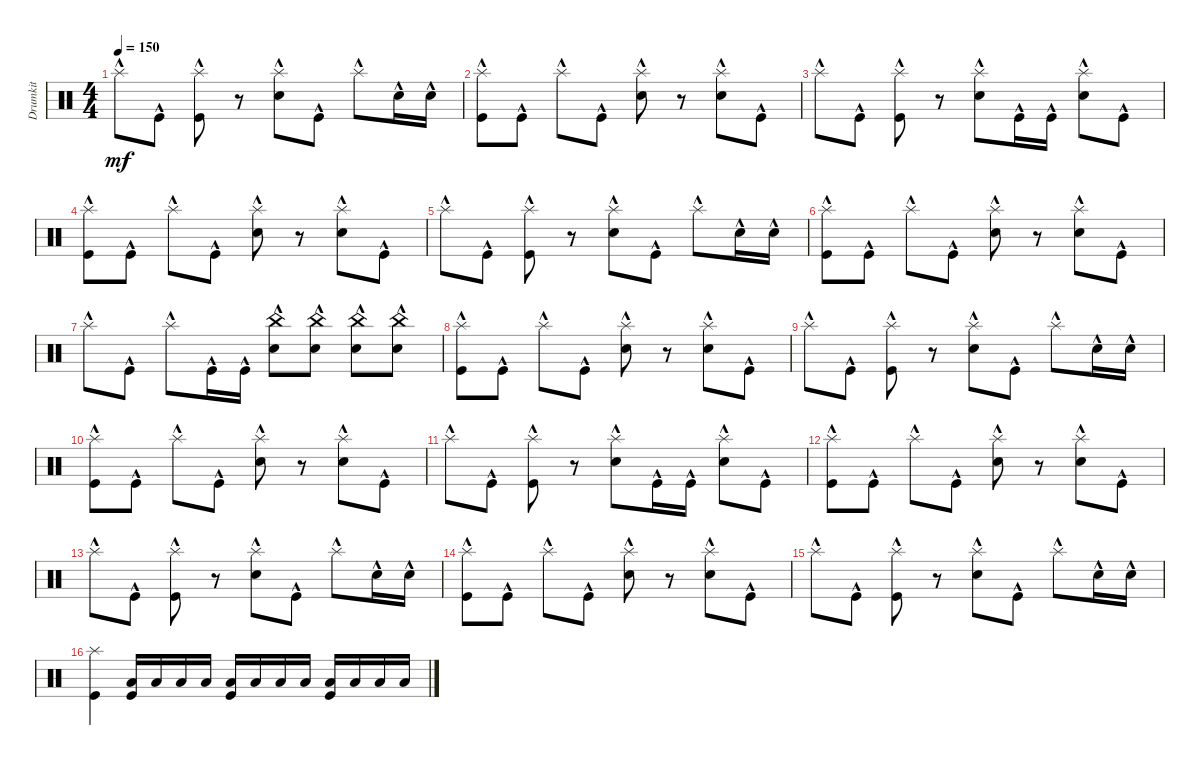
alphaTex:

\track ("Drumkit" "Drumkit") {instrument percussion}
\staff {score}
\articulation defaults
\ts (4 4)
\tempo 150
\clef neutral
\ks c "Splash (hit)"{hac}.8{dy mf} "Kick (hit)"{hac}.8
("Kick (hit)"{hac} "Splash (hit)"{hac}).8 r.8 ("Snare (hit) 2"{hac} "Splash (hit)"{hac}).8 "Kick (hit)"{hac}.8 "Splash (hit)"{hac}.8 "Snare (hit) 2"{hac}.16 "Snare (hit) 2"{hac}.16 |
("Kick (hit)"{hac} "Splash (hit)"{hac}).8 "Kick (hit)"{hac}.8 "Splash (hit)"{hac}.8 "Kick (hit)"{hac}.8 ("Snare (hit) 2"{hac} "Splash (hit)"{hac}).8 r.8 ("Snare (hit) 2"{hac} "Splash (hit)"{hac}).8 "Kick (hit)"{hac}.8 |
"Splash (hit)"{hac}.8 "Kick (hit)"{hac}.8 ("Kick (hit)"{hac} "Splash (hit)"{hac}).8 r.8 ("Snare (hit) 2"{hac} "Splash (hit)"{hac}).8 "Kick (hit)"{hac}.16 "Kick (hit)"{hac}.16 ("Snare (hit) 2"{hac} "Splash (hit)"{hac}).8 "Kick (hit)"{hac}.8 |
("Kick (hit)"{hac} "Splash (hit)"{hac}).8 "Kick (hit)"{hac}.8 "Splash (hit)"{hac}.8 "Kick (hit)"{hac}.8 ("Snare (hit) 2"{hac} "Splash (hit)"{hac}).8 r.8 ("Snare (hit) 2"{hac} "Splash (hit)"{hac}).8 "Kick (hit)"{hac}.8 |
"Splash (hit)"{hac}.8 "Kick (hit)"{hac}.8 ("Kick (hit)"{hac} "Splash (hit)"{hac}).8 r.8 ("Snare (hit) 2"{hac} "Splash (hit)"{hac}).8 "Kick (hit)"{hac}.8 "Splash (hit)"{hac}.8 "Snare (hit) 2"{hac}.16 "Snare (hit) 2"{hac}.16 |
("Kick (hit)"{hac} "Splash (hit)"{hac}).8 "Kick (hit)"{hac}.8 "Splash (hit)"{hac}.8 "Kick (hit)"{hac}.8 ("Snare (hit) 2"{hac} "Splash (hit)"{hac}).8 r.8 ("Snare (hit) 2"{hac} "Splash (hit)"{hac}).8 "Kick (hit)"{hac}.8 |
"Splash (hit)"{hac}.8 "Kick (hit)"{hac}.8 "Splash (hit)"{hac}.8 "Kick (hit)"{hac}.16 "Kick (hit)"{hac}.16 ("Snare (hit) 2"{hac} "China (hit)"{hac}).8 ("Snare (hit) 2"{hac} "China (hit)"{hac}).8 ("Snare (hit) 2"{hac} "China (hit)"{hac}).8 ("Snare (hit) 2"{hac} "China (hit)"{hac}).8 |
("Kick (hit)"{hac} "Splash (hit)"{hac}).8 "Kick (hit)"{hac}.8 "Splash (hit)"{hac}.8 "Kick (hit)"{hac}.8 ("Snare (hit) 2"{hac} "Splash (hit)"{hac}).8 r.8 ("Snare (hit) 2"{hac} "Splash (hit)"{hac}).8 "Kick (hit)"{hac}.8 |
"Splash (hit)"{hac}.8 "Kick (hit)"{hac}.8 ("Kick (hit)"{hac} "Splash (hit)"{hac}).8 r.8 ("Snare (hit) 2"{hac} "Splash (hit)"{hac}).8 "Kick (hit)"{hac}.8 "Splash (hit)"{hac}.8 "Snare (hit) 2"{hac}.16 "Snare (hit) 2"{hac}.16 |
("Kick (hit)"{hac} "Splash (hit)"{hac}).8 "Kick (hit)"{hac}.8 "Splash (hit)"{hac}.8 "Kick (hit)"{hac}.8 ("Snare (hit) 2"{hac} "Splash (hit)"{hac}).8 r.8 ("Snare (hit) 2"{hac} "Splash (hit)"{hac}).8 "Kick (hit)"{hac}.8 |
"Splash (hit)"{hac}.8 "Kick (hit)"{hac}.8 ("Kick (hit)"{hac} "Splash (hit)"{hac}).8 r.8 ("Snare (hit) 2"{hac} "Splash (hit)"{hac}).8 "Kick (hit)"{hac}.16 "Kick (hit)"{hac}.16 ("Snare (hit) 2"{hac} "Splash (hit)"{hac}).8 "Kick (hit)"{hac}.8 |
("Kick (hit)"{hac} "Splash (hit)"{hac}).8 "Kick (hit)"{hac}.8 "Splash (hit)"{hac}.8 "Kick (hit)"{hac}.8 ("Snare (hit) 2"{hac} "Splash (hit)"{hac}).8 r.8 ("Snare (hit) 2"{hac} "Splash (hit)"{hac}).8 "Kick (hit)"{hac}.8 |
"Splash (hit)"{hac}.8 "Kick (hit)"{hac}.8 ("Kick (hit)"{hac} "Splash (hit)"{hac}).8 r.8 ("Snare (hit) 2"{hac} "Splash (hit)"{hac}).8 "Kick (hit)"{hac}.8 "Splash (hit)"{hac}.8 "Snare (hit) 2"{hac}.16 "Snare (hit) 2"{hac}.16 |
("Kick (hit)"{hac} "Splash (hit)"{hac}).8 "Kick (hit)"{hac}.8 "Splash (hit)"{hac}.8 "Kick (hit)"{hac}.8 ("Snare (hit) 2"{hac} "Splash (hit)"{hac}).8 r.8 ("Snare (hit) 2"{hac} "Splash (hit)"{hac}).8 "Kick (hit)"{hac}.8 |
"Splash (hit)"{hac}.8 "Kick (hit)"{hac}.8 ("Kick (hit)"{hac} "Splash (hit)"{hac}).8 r.8 ("Snare (hit) 2"{hac} "Splash (hit)"{hac}).8 "Kick (hit)"{hac}.8 "Splash (hit)"{hac}.8 "Snare (hit) 2"{hac}.16 "Snare (hit) 2"{hac}.16 |
("Kick (hit)" "Splash (hit)").4 ("Low Floor Tom (hit)" "Kick (hit)").16 "Low Floor Tom (hit)".16 "Low Floor Tom (hit)".16 "Low Floor Tom (hit)".16 ("Low Floor Tom (hit)" "Kick (hit)").16 "Low Floor Tom (hit)".16 "Low Floor Tom (hit)".16 "Low Floor Tom (hit)".16 ("Low Floor Tom (hit)" "Kick (hit)").16 "Low Floor Tom (hit)".16 "Low Floor Tom (hit)".16 "Low Floor Tom (hit)".16
